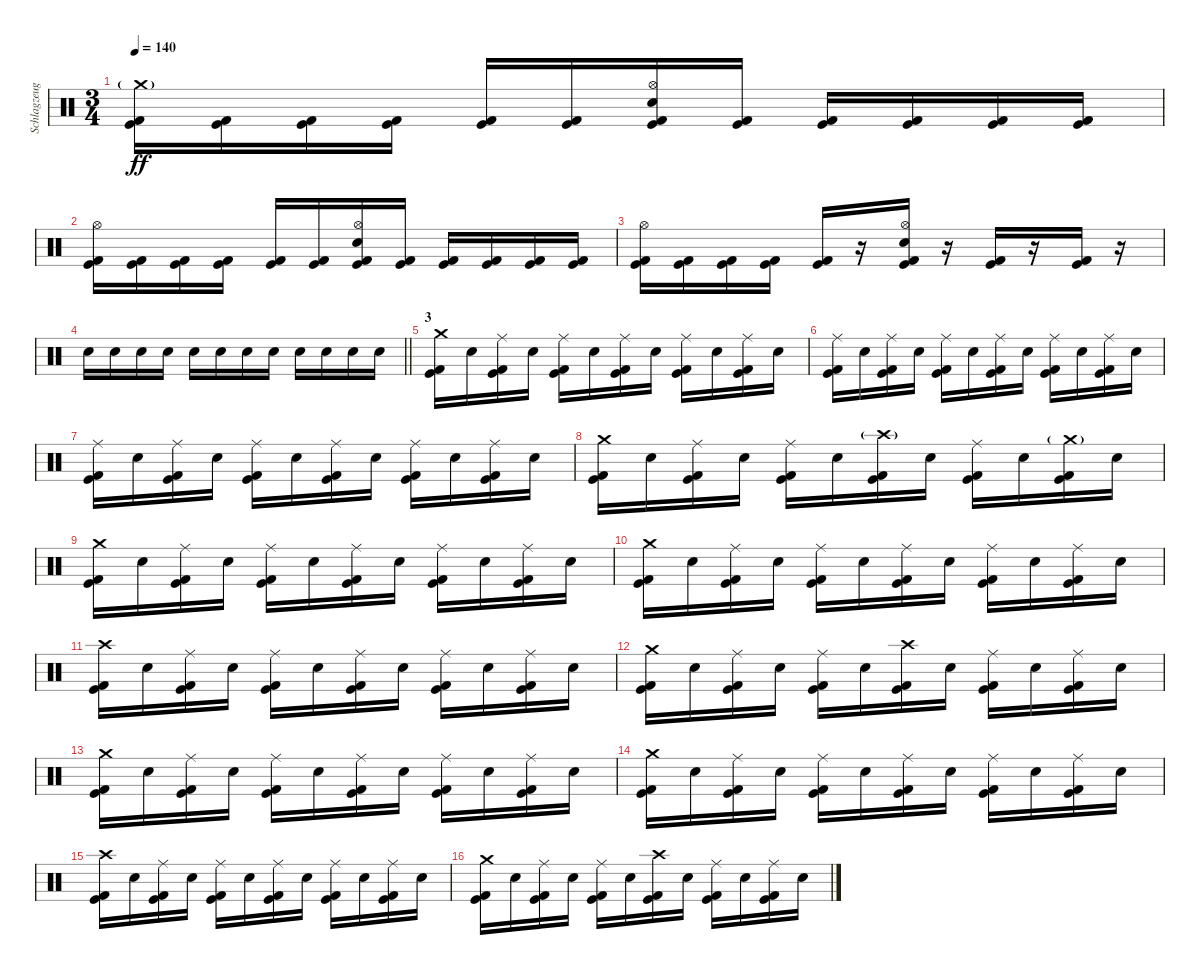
\track ("Schlagzeug" "Schlagzeug") {instrument percussion}
\staff {score}
\articulation defaults
\ts (3 4)
\tempo 140
\clef neutral
\ks c
("Crash medium (hit)"{g} "Kick (hit)" "Kick (hit) 2").16{dy ff} ("Kick (hit)" "Kick (hit) 2").16 ("Kick (hit)" "Kick (hit) 2").16 ("Kick (hit)" "Kick (hit) 2").16 ("Kick (hit)" "Kick (hit) 2").16 ("Kick (hit)" "Kick (hit) 2").16 ("Hi-Hat (open)" "Kick (hit)" "Kick (hit) 2" "Electric Snare (hit)").16 ("Kick (hit)" "Kick (hit) 2").16 ("Kick (hit)" "Kick (hit) 2").16 ("Kick (hit)" "Kick (hit) 2").16 ("Kick (hit)" "Kick (hit) 2").16 ("Kick (hit)" "Kick (hit) 2").16 |
("Hi-Hat (open)" "Kick (hit)" "Kick (hit) 2").16 ("Kick (hit)" "Kick (hit) 2").16 ("Kick (hit)" "Kick (hit) 2").16 ("Kick (hit)" "Kick (hit) 2").16 ("Kick (hit)" "Kick (hit) 2").16 ("Kick (hit)" "Kick (hit) 2").16 ("Hi-Hat (open)" "Kick (hit)" "Kick (hit) 2" "Electric Snare (hit)").16 ("Kick (hit)" "Kick (hit) 2").16 ("Kick (hit)" "Kick (hit) 2").16 ("Kick (hit)" "Kick (hit) 2").16 ("Kick (hit)" "Kick (hit) 2").16 ("Kick (hit)" "Kick (hit) 2").16 |
("Hi-Hat (open)" "Kick (hit)" "Kick (hit) 2").16 ("Kick (hit)" "Kick (hit) 2").16 ("Kick (hit)" "Kick (hit) 2").16 ("Kick (hit)" "Kick (hit) 2").16 ("Kick (hit)" "Kick (hit) 2").16 r.16 ("Hi-Hat (open)" "Kick (hit)" "Kick (hit) 2" "Electric Snare (hit)").16 r.16 ("Kick (hit)" "Kick (hit) 2").16 r.16 ("Kick (hit)" "Kick (hit) 2").16 r.16 |
\barLineRight lightlight "Electric Snare (hit)".16 "Electric Snare (hit)".16 "Electric Snare (hit)".16 "Electric Snare (hit)".16 "Electric Snare (hit)".16 "Electric Snare (hit)".16 "Snare (hit) 2".16 "Snare (hit) 2".16 "Snare (hit) 2".16 "Snare (hit) 2".16 "Snare (hit) 2".16 "Snare (hit) 2".16
|
\section ("" "3")
("Crash medium (hit)" "Kick (hit)" "Kick (hit) 2").16 "Electric Snare (hit)".16 ("Ride (middle)" "Kick (hit)" "Kick (hit) 2").16 "Electric Snare (hit)".16 ("Ride (middle)" "Kick (hit)" "Kick (hit) 2").16 "Electric Snare (hit)".16 ("Ride (middle)" "Kick (hit)" "Kick (hit) 2").16 "Electric Snare (hit)".16 ("Ride (middle)" "Kick (hit)" "Kick (hit) 2").16 "Electric Snare (hit)".16 ("Ride (middle)" "Kick (hit)" "Kick (hit) 2").16 "Electric Snare (hit)".16 |
("Ride (middle)" "Kick (hit)" "Kick (hit) 2").16 "Electric Snare (hit)".16 ("Ride (middle)" "Kick (hit)" "Kick (hit) 2").16 "Electric Snare (hit)".16 ("Ride (middle)" "Kick (hit)" "Kick (hit) 2").16 "Electric Snare (hit)".16 ("Ride (middle)" "Kick (hit)" "Kick (hit) 2").16 "Electric Snare (hit)".16 ("Ride (middle)" "Kick (hit)" "Kick (hit) 2").16 "Electric Snare (hit)".16 ("Ride (middle)" "Kick (hit)" "Kick (hit) 2").16 "Electric Snare (hit)".16 |
("Ride (middle)" "Kick (hit)" "Kick (hit) 2").16 "Electric Snare (hit)".16 ("Ride (middle)" "Kick (hit)" "Kick (hit) 2").16 "Electric Snare (hit)".16 ("Ride (middle)" "Kick (hit)" "Kick (hit) 2").16 "Electric Snare (hit)".16 ("Ride (middle)" "Kick (hit)" "Kick (hit) 2").16 "Electric Snare (hit)".16 ("Ride (middle)" "Kick (hit)" "Kick (hit) 2").16 "Electric Snare (hit)".16 ("Ride (middle)" "Kick (hit)" "Kick (hit) 2").16 "Electric Snare (hit)".16 |
("Crash medium (hit)" "Kick (hit)" "Kick (hit) 2").16 "Electric Snare (hit)".16 ("Ride (middle)" "Kick (hit)" "Kick (hit) 2").16 "Electric Snare (hit)".16 ("Ride (middle)" "Kick (hit)" "Kick (hit) 2").16 "Electric Snare (hit)".16 ("Crash high (hit)"{g} "Kick (hit)" "Kick (hit) 2").16 "Electric Snare (hit)".16 ("Ride (middle)" "Kick (hit)" "Kick (hit) 2").16 "Electric Snare (hit)".16 ("Crash medium (hit)"{g} "Kick (hit)" "Kick (hit) 2").16 "Electric Snare (hit)".16 |
("Crash medium (hit)" "Kick (hit)" "Kick (hit) 2").16 "Electric Snare (hit)".16 ("Ride (middle)" "Kick (hit)" "Kick (hit) 2").16 "Electric Snare (hit)".16 ("Ride (middle)" "Kick (hit)" "Kick (hit) 2").16 "Electric Snare (hit)".16 ("Ride (middle)" "Kick (hit)" "Kick (hit) 2").16 "Electric Snare (hit)".16 ("Ride (middle)" "Kick (hit)" "Kick (hit) 2").16 "Electric Snare (hit)".16 ("Ride (middle)" "Kick (hit)" "Kick (hit) 2").16 "Electric Snare (hit)".16 |
("Crash medium (hit)" "Kick (hit)" "Kick (hit) 2").16 "Electric Snare (hit)".16 ("Ride (middle)" "Kick (hit)" "Kick (hit) 2").16 "Electric Snare (hit)".16 ("Ride (middle)" "Kick (hit)" "Kick (hit) 2").16 "Electric Snare (hit)".16 ("Ride (middle)" "Kick (hit)" "Kick (hit) 2").16 "Electric Snare (hit)".16 ("Ride (middle)" "Kick (hit)" "Kick (hit) 2").16 "Electric Snare (hit)".16 ("Ride (middle)" "Kick (hit)" "Kick (hit) 2").16 "Electric Snare (hit)".16 |
("Crash high (hit)" "Kick (hit)" "Kick (hit) 2").16 "Electric Snare (hit)".16 ("Ride (middle)" "Kick (hit)" "Kick (hit) 2").16 "Electric Snare (hit)".16 ("Ride (middle)" "Kick (hit)" "Kick (hit) 2").16 "Electric Snare (hit)".16 ("Ride (middle)" "Kick (hit)" "Kick (hit) 2").16 "Electric Snare (hit)".16 ("Ride (middle)" "Kick (hit)" "Kick (hit) 2").16 "Electric Snare (hit)".16 ("Ride (middle)" "Kick (hit)" "Kick (hit) 2").16 "Electric Snare (hit)".16 |
("Crash medium (hit)" "Kick (hit)" "Kick (hit) 2").16 "Electric Snare (hit)".16 ("Ride (middle)" "Kick (hit)" "Kick (hit) 2").16 "Electric Snare (hit)".16 ("Ride (middle)" "Kick (hit)" "Kick (hit) 2").16 "Electric Snare (hit)".16 ("Crash high (hit)" "Kick (hit)" "Kick (hit) 2").16 "Electric Snare (hit)".16 ("Ride (middle)" "Kick (hit)" "Kick (hit) 2").16 "Electric Snare (hit)".16 ("Ride (middle)" "Kick (hit)" "Kick (hit) 2").16 "Electric Snare (hit)".16 |
("Crash medium (hit)" "Kick (hit)" "Kick (hit) 2").16 "Electric Snare (hit)".16 ("Ride (middle)" "Kick (hit)" "Kick (hit) 2").16 "Electric Snare (hit)".16 ("Ride (middle)" "Kick (hit)" "Kick (hit) 2").16 "Electric Snare (hit)".16 ("Ride (middle)" "Kick (hit)" "Kick (hit) 2").16 "Electric Snare (hit)".16 ("Ride (middle)" "Kick (hit)" "Kick (hit) 2").16 "Electric Snare (hit)".16 ("Ride (middle)" "Kick (hit)" "Kick (hit) 2").16 "Electric Snare (hit)".16 |
("Crash medium (hit)" "Kick (hit)" "Kick (hit) 2").16 "Electric Snare (hit)".16 ("Ride (middle)" "Kick (hit)" "Kick (hit) 2").16 "Electric Snare (hit)".16 ("Ride (middle)" "Kick (hit)" "Kick (hit) 2").16 "Electric Snare (hit)".16 ("Ride (middle)" "Kick (hit)" "Kick (hit) 2").16 "Electric Snare (hit)".16 ("Ride (middle)" "Kick (hit)" "Kick (hit) 2").16 "Electric Snare (hit)".16 ("Ride (middle)" "Kick (hit)" "Kick (hit) 2").16 "Electric Snare (hit)".16 |
("Crash high (hit)" "Kick (hit)" "Kick (hit) 2").16 "Electric Snare (hit)".16 ("Ride (middle)" "Kick (hit)" "Kick (hit) 2").16 "Electric Snare (hit)".16 ("Ride (middle)" "Kick (hit)" "Kick (hit) 2").16 "Electric Snare (hit)".16 ("Ride (middle)" "Kick (hit)" "Kick (hit) 2").16 "Electric Snare (hit)".16 ("Ride (middle)" "Kick (hit)" "Kick (hit) 2").16 "Electric Snare (hit)".16 ("Ride (middle)" "Kick (hit)" "Kick (hit) 2").16 "Electric Snare (hit)".16 |
("Crash medium (hit)" "Kick (hit)" "Kick (hit) 2").16 "Electric Snare (hit)".16 ("Ride (middle)" "Kick (hit)" "Kick (hit) 2").16 "Electric Snare (hit)".16 ("Ride (middle)" "Kick (hit)" "Kick (hit) 2").16 "Electric Snare (hit)".16 ("Crash high (hit)" "Kick (hit)" "Kick (hit) 2").16 "Electric Snare (hit)".16 ("Ride (middle)" "Kick (hit)" "Kick (hit) 2").16 "Electric Snare (hit)".16 ("Ride (middle)" "Kick (hit)" "Kick (hit) 2").16 "Electric Snare (hit)".16
